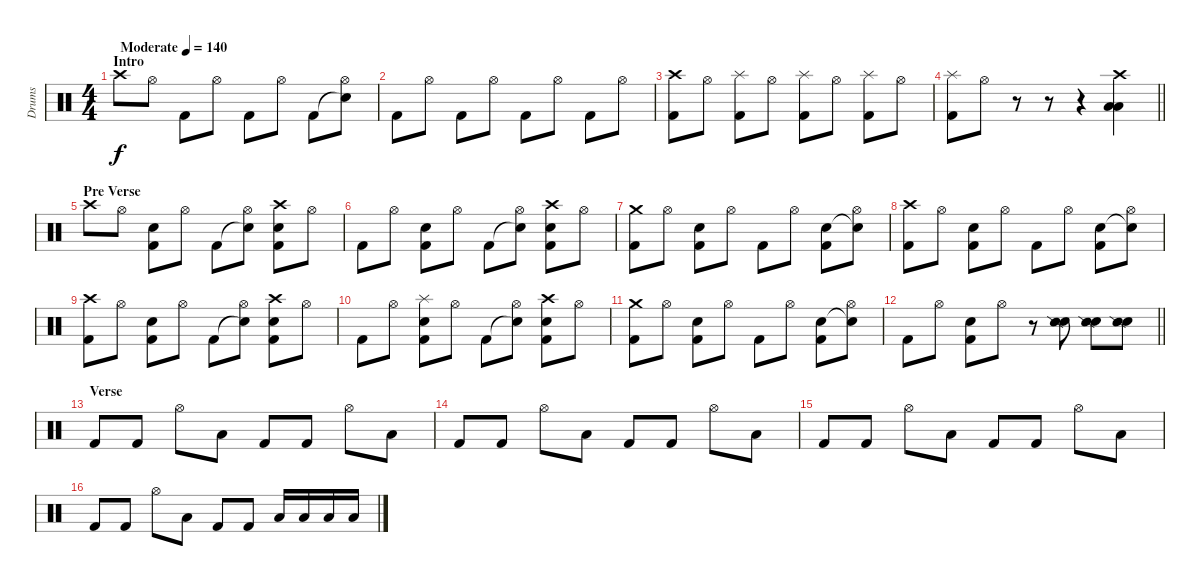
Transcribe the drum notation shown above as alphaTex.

\track ("Drums" "Drums") {instrument percussion}
\staff
\articulation defaults
\ts (4 4)
\section ("" "Intro")
\tempo (140 "Moderate")
\clef neutral
\ks c "Crash high (hit)".8{dy f volume 12} "Hi-Hat (open)".8 "Kick (hit) 2".8 "Hi-Hat (open)".8 "Kick (hit) 2".8 "Hi-Hat (open)".8 "Kick (hit) 2".8
("Snare (hit)"{t} "Hi-Hat (open)").8 |
"Kick (hit) 2".8 "Hi-Hat (open)".8 "Kick (hit) 2".8 "Hi-Hat (open)".8 "Kick (hit) 2".8 "Hi-Hat (open)".8 "Kick (hit) 2".8 "Hi-Hat (open)".8 |
("Crash high (hit)" "Kick (hit) 2").8 "Hi-Hat (open)".8 ("Splash (hit)" "Kick (hit) 2").8 "Hi-Hat (open)".8 ("Splash (hit)" "Kick (hit) 2").8 "Hi-Hat (open)".8 ("Splash (hit)" "Kick (hit) 2").8 "Hi-Hat (open)".8 |
\barLineRight lightlight
("Splash (hit)" "Kick (hit) 2").8 "Hi-Hat (open)".8 r.8 r.8 r.4 ("Crash high (hit)" "Low Tom (hit)" "Low Floor Tom (hit)").4 |
\section ("" "Pre Verse")
"Crash high (hit)".8 "Hi-Hat (open)".8 ("Snare (hit) 2" "Kick (hit) 2").8 "Hi-Hat (open)".8 "Kick (hit) 2".8 ("Snare (hit)"{t} "Hi-Hat (open)").8 ("Crash high (hit)" "Snare (hit) 2" "Kick (hit) 2").8 "Hi-Hat (open)".8 |
"Kick (hit) 2".8 "Hi-Hat (open)".8 ("Snare (hit) 2" "Kick (hit) 2").8 "Hi-Hat (open)".8 "Kick (hit) 2".8 ("Snare (hit)"{t} "Hi-Hat (open)").8 ("Crash high (hit)" "Snare (hit) 2" "Kick (hit) 2").8 "Hi-Hat (open)".8 |
("Crash medium (hit)" "Kick (hit) 2").8 "Hi-Hat (open)".8 ("Snare (hit) 2" "Kick (hit) 2").8 "Hi-Hat (open)".8 "Kick (hit) 2".8 "Hi-Hat (open)".8 ("Snare (hit) 2" "Kick (hit) 2").8 ("Snare (hit)"{t} "Hi-Hat (open)").8 |
("Crash high (hit)" "Kick (hit) 2").8 "Hi-Hat (open)".8 ("Snare (hit) 2" "Kick (hit) 2").8 "Hi-Hat (open)".8 "Kick (hit) 2".8 "Hi-Hat (open)".8 ("Snare (hit) 2" "Kick (hit) 2").8 ("Snare (hit)"{t} "Hi-Hat (open)").8 |
("Crash high (hit)" "Kick (hit) 2").8 "Hi-Hat (open)".8 ("Snare (hit) 2" "Kick (hit) 2").8 "Hi-Hat (open)".8 "Kick (hit) 2".8 ("Snare (hit)"{t} "Hi-Hat (open)").8 ("Crash high (hit)" "Snare (hit) 2" "Kick (hit) 2").8 "Hi-Hat (open)".8 |
"Kick (hit) 2".8 "Hi-Hat (open)".8 ("Splash (hit)" "Snare (hit) 2" "Kick (hit) 2").8 "Hi-Hat (open)".8 "Kick (hit) 2".8 ("Snare (hit)"{t} "Hi-Hat (open)").8 ("Crash high (hit)" "Snare (hit) 2" "Kick (hit) 2").8 "Hi-Hat (open)".8 |
("Crash medium (hit)" "Kick (hit) 2").8 "Hi-Hat (open)".8 ("Snare (hit) 2" "Kick (hit) 2").8 "Hi-Hat (open)".8 "Kick (hit) 2".8 "Hi-Hat (open)".8 ("Snare (hit) 2" "Kick (hit) 2").8 ("Snare (hit)"{t} "Hi-Hat (open)").8 |
\barLineRight lightlight "Kick (hit) 2".8 "Hi-Hat (open)".8
("Snare (hit) 2" "Kick (hit) 2").8 "Hi-Hat (open)".8 r.8 ("Hand Clap (hit)" "Snare (side stick) 2").8 ("Hand Clap (hit)" "Snare (side stick) 2").8 ("Hand Clap (hit)" "Snare (side stick) 2").8 |
\section ("" "Verse")
"Kick (hit) 2".8 "Kick (hit) 2".8 "Hi-Hat (open)".8 "Low Floor Tom (hit)".8 "Kick (hit) 2".8 "Kick (hit) 2".8 "Hi-Hat (open)".8 "Low Floor Tom (hit)".8 |
"Kick (hit) 2".8 "Kick (hit) 2".8 "Hi-Hat (open)".8 "Low Floor Tom (hit)".8 "Kick (hit) 2".8 "Kick (hit) 2".8 "Hi-Hat (open)".8 "Low Floor Tom (hit)".8 |
"Kick (hit) 2".8 "Kick (hit) 2".8 "Hi-Hat (open)".8 "Low Floor Tom (hit)".8 "Kick (hit) 2".8 "Kick (hit) 2".8 "Hi-Hat (open)".8 "Low Floor Tom (hit)".8 |
"Kick (hit) 2".8 "Kick (hit) 2".8 "Hi-Hat (open)".8 "Low Floor Tom (hit)".8 "Kick (hit) 2".8 "Kick (hit) 2".8 "Low Tom (hit)".16 "Low Tom (hit)".16 "Low Floor Tom (hit)".16 "Low Floor Tom (hit)".16
